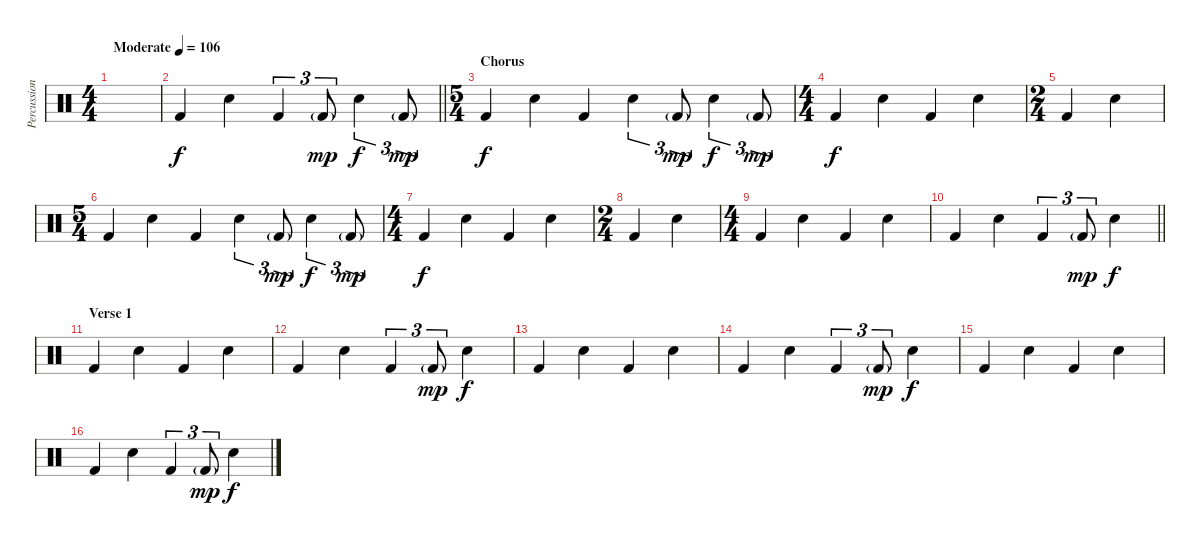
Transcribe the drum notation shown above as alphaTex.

\track ("Percussion" "Percussion") {instrument percussion}
\staff {score}
\articulation defaults
\ts (4 4)
\tempo (106 "Moderate")
\clef neutral
\ks c
|
\barLineRight lightlight "Kick (hit) 2".4 "Snare (hit) 2".4 "Kick (hit) 2".4{tu (3 2)} "Kick (hit) 2"{g}.8{tu (3 2) dy mp} "Snare (hit) 2".4{tu (3 2) dy f} "Kick (hit) 2"{g}.8{tu (3 2) dy mp}
|
\ts (5 4)
\section ("" "Chorus")
"Kick (hit) 2".4{dy f} "Snare (hit) 2".4 "Kick (hit) 2".4 "Snare (hit) 2".4{tu (3 2)} "Kick (hit) 2"{g}.8{tu (3 2) dy mp} "Snare (hit) 2".4{tu (3 2) dy f} "Kick (hit) 2"{g}.8{tu (3 2) dy mp} |
\ts (4 4)
"Kick (hit) 2".4{dy f} "Snare (hit) 2".4 "Kick (hit) 2".4 "Snare (hit) 2".4 |
\ts (2 4)
"Kick (hit) 2".4 "Snare (hit) 2".4 |
\ts (5 4)
"Kick (hit) 2".4 "Snare (hit) 2".4 "Kick (hit) 2".4 "Snare (hit) 2".4{tu (3 2)} "Kick (hit) 2"{g}.8{tu (3 2) dy mp} "Snare (hit) 2".4{tu (3 2) dy f} "Kick (hit) 2"{g}.8{tu (3 2) dy mp} |
\ts (4 4)
"Kick (hit) 2".4{dy f} "Snare (hit) 2".4 "Kick (hit) 2".4 "Snare (hit) 2".4 |
\ts (2 4)
"Kick (hit) 2".4 "Snare (hit) 2".4 |
\ts (4 4)
"Kick (hit) 2".4 "Snare (hit) 2".4 "Kick (hit) 2".4 "Snare (hit) 2".4 |
\barLineRight lightlight "Kick (hit) 2".4 "Snare (hit) 2".4 "Kick (hit) 2".4{tu (3 2)} "Kick (hit) 2"{g}.8{tu (3 2) dy mp} "Snare (hit) 2".4{dy f}
|
\section ("" "Verse 1")
"Kick (hit) 2".4 "Snare (hit) 2".4 "Kick (hit) 2".4 "Snare (hit) 2".4 |
"Kick (hit) 2".4 "Snare (hit) 2".4 "Kick (hit) 2".4{tu (3 2)} "Kick (hit) 2"{g}.8{tu (3 2) dy mp} "Snare (hit) 2".4{dy f} |
"Kick (hit) 2".4 "Snare (hit) 2".4 "Kick (hit) 2".4 "Snare (hit) 2".4 |
"Kick (hit) 2".4 "Snare (hit) 2".4 "Kick (hit) 2".4{tu (3 2)} "Kick (hit) 2"{g}.8{tu (3 2) dy mp} "Snare (hit) 2".4{dy f} |
"Kick (hit) 2".4 "Snare (hit) 2".4 "Kick (hit) 2".4 "Snare (hit) 2".4 |
"Kick (hit) 2".4 "Snare (hit) 2".4 "Kick (hit) 2".4{tu (3 2)} "Kick (hit) 2"{g}.8{tu (3 2) dy mp} "Snare (hit) 2".4{dy f}
